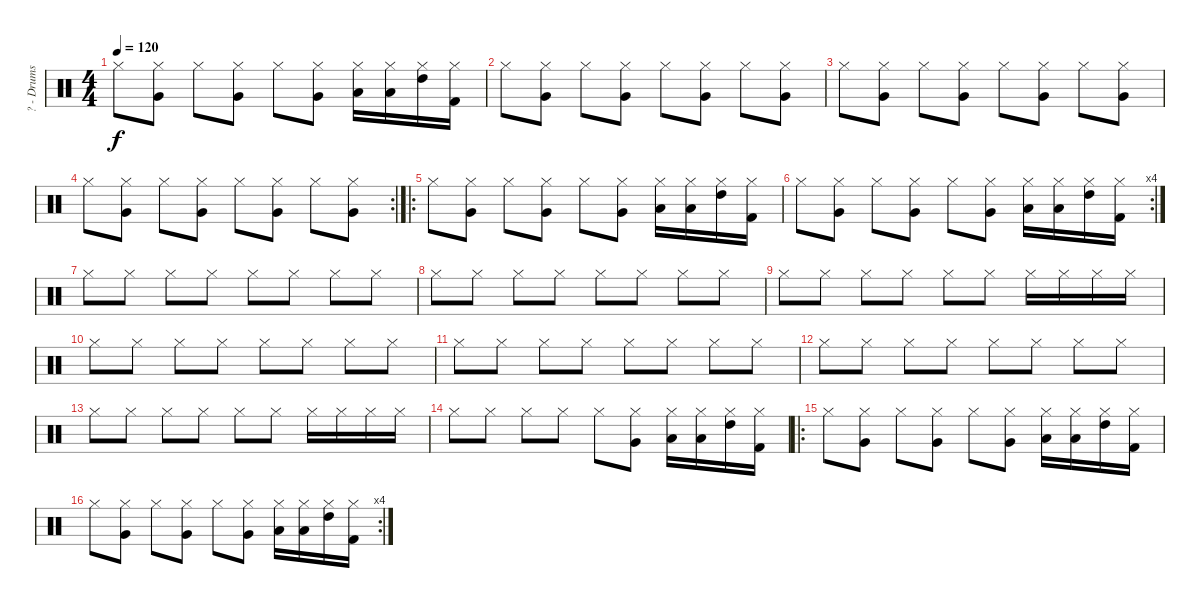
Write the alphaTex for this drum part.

\track ("? - Drums" "? - Drums") {instrument percussion}
\staff {score}
\articulation defaults
\ts (4 4)
\tempo 120
\clef neutral
\ks c "Hi-Hat (closed)".8{dy f}
("Hi-Hat (closed)" "Very Low Tom (hit)").8 "Hi-Hat (closed)".8 ("Hi-Hat (closed)" "Very Low Tom (hit)").8 "Hi-Hat (closed)".8 ("Hi-Hat (closed)" "Very Low Tom (hit)").8 ("Hi-Hat (closed)" "Low Tom (hit)").16 ("Hi-Hat (closed)" "Low Tom (hit)").16 ("Hi-Hat (closed)" "High Tom (hit)").16 ("Hi-Hat (closed)" "Kick (hit) 2").16 |
"Hi-Hat (closed)".8 ("Hi-Hat (closed)" "Very Low Tom (hit)").8 "Hi-Hat (closed)".8 ("Hi-Hat (closed)" "Very Low Tom (hit)").8 "Hi-Hat (closed)".8 ("Hi-Hat (closed)" "Very Low Tom (hit)").8 "Hi-Hat (closed)".8 ("Hi-Hat (closed)" "Very Low Tom (hit)").8 |
"Hi-Hat (closed)".8 ("Hi-Hat (closed)" "Very Low Tom (hit)").8 "Hi-Hat (closed)".8 ("Hi-Hat (closed)" "Very Low Tom (hit)").8 "Hi-Hat (closed)".8 ("Hi-Hat (closed)" "Very Low Tom (hit)").8 "Hi-Hat (closed)".8 ("Hi-Hat (closed)" "Very Low Tom (hit)").8 |
\rc 2 "Hi-Hat (closed)".8
("Hi-Hat (closed)" "Very Low Tom (hit)").8 "Hi-Hat (closed)".8 ("Hi-Hat (closed)" "Very Low Tom (hit)").8 "Hi-Hat (closed)".8 ("Hi-Hat (closed)" "Very Low Tom (hit)").8 "Hi-Hat (closed)".8 ("Hi-Hat (closed)" "Very Low Tom (hit)").8 |
\ro "Hi-Hat (closed)".8
("Hi-Hat (closed)" "Very Low Tom (hit)").8 "Hi-Hat (closed)".8 ("Hi-Hat (closed)" "Very Low Tom (hit)").8 "Hi-Hat (closed)".8 ("Hi-Hat (closed)" "Very Low Tom (hit)").8 ("Hi-Hat (closed)" "Low Tom (hit)").16 ("Hi-Hat (closed)" "Low Tom (hit)").16 ("Hi-Hat (closed)" "High Tom (hit)").16 ("Hi-Hat (closed)" "Kick (hit) 2").16 |
\rc 4 "Hi-Hat (closed)".8
("Hi-Hat (closed)" "Very Low Tom (hit)").8 "Hi-Hat (closed)".8 ("Hi-Hat (closed)" "Very Low Tom (hit)").8 "Hi-Hat (closed)".8 ("Hi-Hat (closed)" "Very Low Tom (hit)").8 ("Hi-Hat (closed)" "Low Tom (hit)").16 ("Hi-Hat (closed)" "Low Tom (hit)").16 ("Hi-Hat (closed)" "High Tom (hit)").16 ("Hi-Hat (closed)" "Kick (hit) 2").16 |
"Hi-Hat (closed)".8 "Hi-Hat (closed)".8 "Hi-Hat (closed)".8 "Hi-Hat (closed)".8 "Hi-Hat (closed)".8 "Hi-Hat (closed)".8 "Hi-Hat (closed)".8 "Hi-Hat (closed)".8 |
"Hi-Hat (closed)".8 "Hi-Hat (closed)".8 "Hi-Hat (closed)".8 "Hi-Hat (closed)".8 "Hi-Hat (closed)".8 "Hi-Hat (closed)".8 "Hi-Hat (closed)".8 "Hi-Hat (closed)".8 |
"Hi-Hat (closed)".8 "Hi-Hat (closed)".8 "Hi-Hat (closed)".8 "Hi-Hat (closed)".8 "Hi-Hat (closed)".8 "Hi-Hat (closed)".8 "Hi-Hat (closed)".16 "Hi-Hat (closed)".16 "Hi-Hat (closed)".16 "Hi-Hat (closed)".16 |
"Hi-Hat (closed)".8 "Hi-Hat (closed)".8 "Hi-Hat (closed)".8 "Hi-Hat (closed)".8 "Hi-Hat (closed)".8 "Hi-Hat (closed)".8 "Hi-Hat (closed)".8 "Hi-Hat (closed)".8 |
"Hi-Hat (closed)".8 "Hi-Hat (closed)".8 "Hi-Hat (closed)".8 "Hi-Hat (closed)".8 "Hi-Hat (closed)".8 "Hi-Hat (closed)".8 "Hi-Hat (closed)".8 "Hi-Hat (closed)".8 |
"Hi-Hat (closed)".8 "Hi-Hat (closed)".8 "Hi-Hat (closed)".8 "Hi-Hat (closed)".8 "Hi-Hat (closed)".8 "Hi-Hat (closed)".8 "Hi-Hat (closed)".8 "Hi-Hat (closed)".8 |
"Hi-Hat (closed)".8 "Hi-Hat (closed)".8 "Hi-Hat (closed)".8 "Hi-Hat (closed)".8 "Hi-Hat (closed)".8 "Hi-Hat (closed)".8 "Hi-Hat (closed)".16 "Hi-Hat (closed)".16 "Hi-Hat (closed)".16 "Hi-Hat (closed)".16 |
"Hi-Hat (closed)".8 "Hi-Hat (closed)".8 "Hi-Hat (closed)".8 "Hi-Hat (closed)".8 "Hi-Hat (closed)".8 ("Hi-Hat (closed)" "Very Low Tom (hit)").8 ("Hi-Hat (closed)" "Low Tom (hit)").16 ("Hi-Hat (closed)" "Low Tom (hit)").16 ("Hi-Hat (closed)" "High Tom (hit)").16 ("Hi-Hat (closed)" "Kick (hit) 2").16 |
\ro "Hi-Hat (closed)".8
("Hi-Hat (closed)" "Very Low Tom (hit)").8 "Hi-Hat (closed)".8 ("Hi-Hat (closed)" "Very Low Tom (hit)").8 "Hi-Hat (closed)".8 ("Hi-Hat (closed)" "Very Low Tom (hit)").8 ("Hi-Hat (closed)" "Low Tom (hit)").16 ("Hi-Hat (closed)" "Low Tom (hit)").16 ("Hi-Hat (closed)" "High Tom (hit)").16 ("Hi-Hat (closed)" "Kick (hit) 2").16 |
\rc 4 "Hi-Hat (closed)".8
("Hi-Hat (closed)" "Very Low Tom (hit)").8 "Hi-Hat (closed)".8 ("Hi-Hat (closed)" "Very Low Tom (hit)").8 "Hi-Hat (closed)".8 ("Hi-Hat (closed)" "Very Low Tom (hit)").8 ("Hi-Hat (closed)" "Low Tom (hit)").16 ("Hi-Hat (closed)" "Low Tom (hit)").16 ("Hi-Hat (closed)" "High Tom (hit)").16 ("Hi-Hat (closed)" "Kick (hit) 2").16
